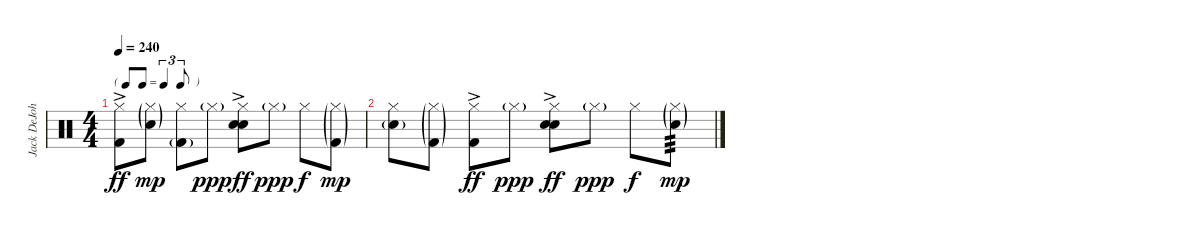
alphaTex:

\track ("Jack DeJohnette" "Jack DeJoh") {instrument percussion}
\staff {score}
\articulation defaults
\ts (4 4)
\tf triplet8th
\tempo 240
\clef neutral
\ks c
("Hi-Hat (closed)" "Kick (hit) 2"{ac}).8{dy ff} ("Hi-Hat (closed)"{g} "Snare (hit) 2"{g}).8{dy mp} ("Hi-Hat (closed)" "Kick (hit) 2"{g}).8 "Hi-Hat (closed)"{g}.8{dy ppp} ("Hi-Hat (closed)" "Electric Snare (hit)" "Snare (hit) 2"{ac}).8{dy ff} "Hi-Hat (closed)"{g}.8{dy ppp} "Hi-Hat (closed)".8{dy f} ("Hi-Hat (closed)"{g} "Kick (hit) 2"{g}).8{dy mp} |
("Hi-Hat (closed)" "Snare (hit) 2"{g}).8 ("Hi-Hat (closed)"{g} "Kick (hit) 2"{g}).8 ("Hi-Hat (closed)" "Kick (hit) 2"{ac}).8{dy ff} "Hi-Hat (closed)"{g}.8{dy ppp} ("Hi-Hat (closed)" "Electric Snare (hit)" "Snare (hit) 2"{ac}).8{dy ff} "Hi-Hat (closed)"{g}.8{dy ppp} "Hi-Hat (closed)".8{dy f} ("Hi-Hat (closed)"{g} "Snare (hit) 2"{g}).8{tp 3 dy mp}
